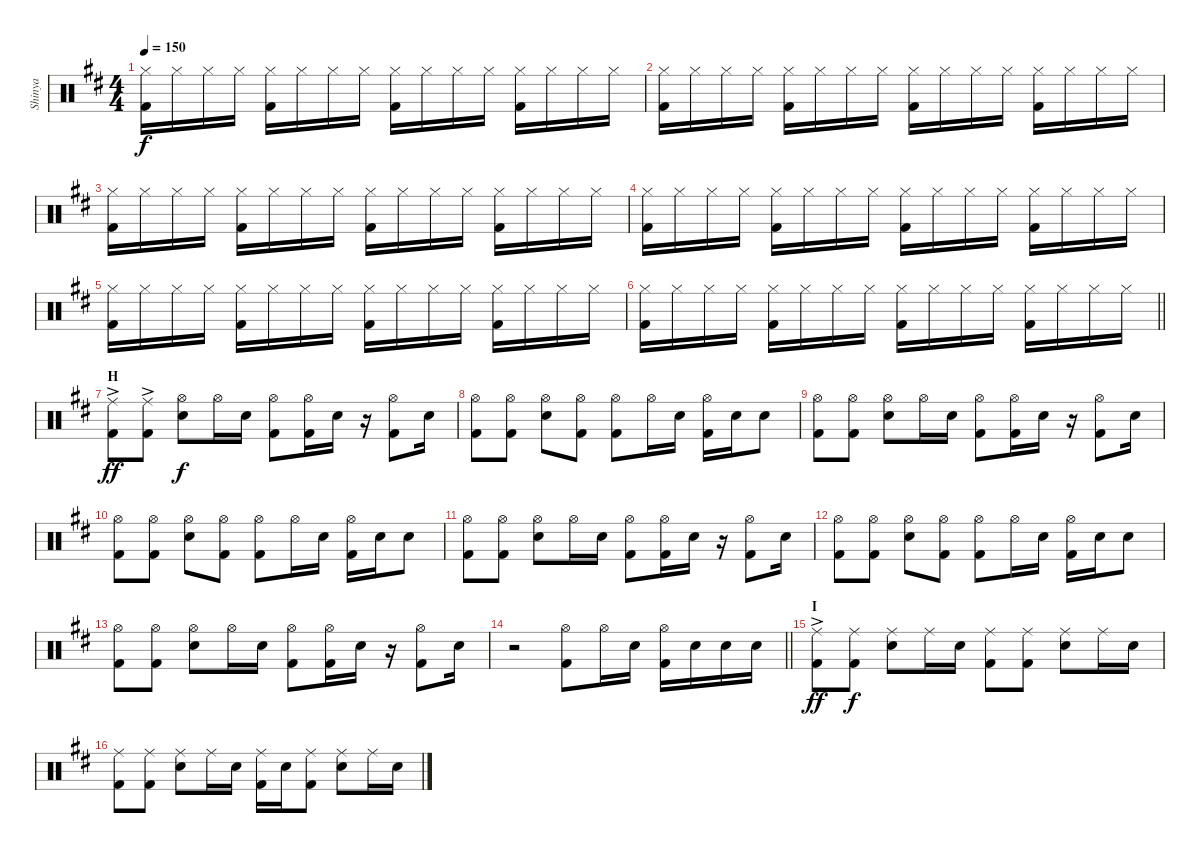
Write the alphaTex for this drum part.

\track ("Shinya" "Shinya") {instrument percussion}
\staff {score}
\articulation defaults
\ts (4 4)
\tempo 150
\clef neutral
\ks d
("Hi-Hat (closed)" "Kick (hit) 2").16{dy f} "Hi-Hat (closed)".16 "Hi-Hat (closed)".16 "Hi-Hat (closed)".16 ("Hi-Hat (closed)" "Kick (hit) 2").16 "Hi-Hat (closed)".16 "Hi-Hat (closed)".16 "Hi-Hat (closed)".16 ("Hi-Hat (closed)" "Kick (hit) 2").16 "Hi-Hat (closed)".16 "Hi-Hat (closed)".16 "Hi-Hat (closed)".16 ("Hi-Hat (closed)" "Kick (hit) 2").16 "Hi-Hat (closed)".16 "Hi-Hat (closed)".16 "Hi-Hat (closed)".16 |
("Hi-Hat (closed)" "Kick (hit) 2").16 "Hi-Hat (closed)".16 "Hi-Hat (closed)".16 "Hi-Hat (closed)".16 ("Hi-Hat (closed)" "Kick (hit) 2").16 "Hi-Hat (closed)".16 "Hi-Hat (closed)".16 "Hi-Hat (closed)".16 ("Hi-Hat (closed)" "Kick (hit) 2").16 "Hi-Hat (closed)".16 "Hi-Hat (closed)".16 "Hi-Hat (closed)".16 ("Hi-Hat (closed)" "Kick (hit) 2").16 "Hi-Hat (closed)".16 "Hi-Hat (closed)".16 "Hi-Hat (closed)".16 |
("Hi-Hat (closed)" "Kick (hit) 2").16 "Hi-Hat (closed)".16 "Hi-Hat (closed)".16 "Hi-Hat (closed)".16 ("Hi-Hat (closed)" "Kick (hit) 2").16 "Hi-Hat (closed)".16 "Hi-Hat (closed)".16 "Hi-Hat (closed)".16 ("Hi-Hat (closed)" "Kick (hit) 2").16 "Hi-Hat (closed)".16 "Hi-Hat (closed)".16 "Hi-Hat (closed)".16 ("Hi-Hat (closed)" "Kick (hit) 2").16 "Hi-Hat (closed)".16 "Hi-Hat (closed)".16 "Hi-Hat (closed)".16 |
("Hi-Hat (closed)" "Kick (hit) 2").16 "Hi-Hat (closed)".16 "Hi-Hat (closed)".16 "Hi-Hat (closed)".16 ("Hi-Hat (closed)" "Kick (hit) 2").16 "Hi-Hat (closed)".16 "Hi-Hat (closed)".16 "Hi-Hat (closed)".16 ("Hi-Hat (closed)" "Kick (hit) 2").16 "Hi-Hat (closed)".16 "Hi-Hat (closed)".16 "Hi-Hat (closed)".16 ("Hi-Hat (closed)" "Kick (hit) 2").16 "Hi-Hat (closed)".16 "Hi-Hat (closed)".16 "Hi-Hat (closed)".16 |
("Hi-Hat (closed)" "Kick (hit) 2").16 "Hi-Hat (closed)".16 "Hi-Hat (closed)".16 "Hi-Hat (closed)".16 ("Hi-Hat (closed)" "Kick (hit) 2").16 "Hi-Hat (closed)".16 "Hi-Hat (closed)".16 "Hi-Hat (closed)".16 ("Hi-Hat (closed)" "Kick (hit) 2").16 "Hi-Hat (closed)".16 "Hi-Hat (closed)".16 "Hi-Hat (closed)".16 ("Hi-Hat (closed)" "Kick (hit) 2").16 "Hi-Hat (closed)".16 "Hi-Hat (closed)".16 "Hi-Hat (closed)".16 |
\barLineRight lightlight
("Hi-Hat (closed)" "Kick (hit) 2").16 "Hi-Hat (closed)".16 "Hi-Hat (closed)".16 "Hi-Hat (closed)".16 ("Hi-Hat (closed)" "Kick (hit) 2").16 "Hi-Hat (closed)".16 "Hi-Hat (closed)".16 "Hi-Hat (closed)".16 ("Hi-Hat (closed)" "Kick (hit) 2").16 "Hi-Hat (closed)".16 "Hi-Hat (closed)".16 "Hi-Hat (closed)".16 ("Hi-Hat (closed)" "Kick (hit) 2").16 "Hi-Hat (closed)".16 "Hi-Hat (closed)".16 "Hi-Hat (closed)".16 |
\section ("" "H")
("Ride (middle)"{ac} "Kick (hit) 2").8{dy ff} ("Ride (middle)"{ac} "Kick (hit) 2").8 ("Hi-Hat (open)" "Snare (hit) 2").8{dy f} "Hi-Hat (open)".16 "Snare (hit) 2".16 ("Hi-Hat (open)" "Kick (hit) 2").8 ("Hi-Hat (open)" "Kick (hit) 2").16 "Snare (hit) 2".16 r.16 ("Hi-Hat (open)" "Kick (hit) 2").8 "Snare (hit) 2".16 |
("Hi-Hat (open)" "Kick (hit) 2").8 ("Hi-Hat (open)" "Kick (hit) 2").8 ("Hi-Hat (open)" "Snare (hit) 2").8 ("Hi-Hat (open)" "Kick (hit) 2").8 ("Hi-Hat (open)" "Kick (hit) 2").8 "Hi-Hat (open)".16 "Snare (hit) 2".16 ("Hi-Hat (open)" "Kick (hit) 2").16 "Snare (hit) 2".16 "Snare (hit) 2".8 |
("Hi-Hat (open)" "Kick (hit) 2").8 ("Hi-Hat (open)" "Kick (hit) 2").8 ("Hi-Hat (open)" "Snare (hit) 2").8 "Hi-Hat (open)".16 "Snare (hit) 2".16 ("Hi-Hat (open)" "Kick (hit) 2").8 ("Hi-Hat (open)" "Kick (hit) 2").16 "Snare (hit) 2".16 r.16 ("Hi-Hat (open)" "Kick (hit) 2").8 "Snare (hit) 2".16 |
("Hi-Hat (open)" "Kick (hit) 2").8 ("Hi-Hat (open)" "Kick (hit) 2").8 ("Hi-Hat (open)" "Snare (hit) 2").8 ("Hi-Hat (open)" "Kick (hit) 2").8 ("Hi-Hat (open)" "Kick (hit) 2").8 "Hi-Hat (open)".16 "Snare (hit) 2".16 ("Hi-Hat (open)" "Kick (hit) 2").16 "Snare (hit) 2".16 "Snare (hit) 2".8 |
("Hi-Hat (open)" "Kick (hit) 2").8 ("Hi-Hat (open)" "Kick (hit) 2").8 ("Hi-Hat (open)" "Snare (hit) 2").8 "Hi-Hat (open)".16 "Snare (hit) 2".16 ("Hi-Hat (open)" "Kick (hit) 2").8 ("Hi-Hat (open)" "Kick (hit) 2").16 "Snare (hit) 2".16 r.16 ("Hi-Hat (open)" "Kick (hit) 2").8 "Snare (hit) 2".16 |
("Hi-Hat (open)" "Kick (hit) 2").8 ("Hi-Hat (open)" "Kick (hit) 2").8 ("Hi-Hat (open)" "Snare (hit) 2").8 ("Hi-Hat (open)" "Kick (hit) 2").8 ("Hi-Hat (open)" "Kick (hit) 2").8 "Hi-Hat (open)".16 "Snare (hit) 2".16 ("Hi-Hat (open)" "Kick (hit) 2").16 "Snare (hit) 2".16 "Snare (hit) 2".8 |
("Hi-Hat (open)" "Kick (hit) 2").8 ("Hi-Hat (open)" "Kick (hit) 2").8 ("Hi-Hat (open)" "Snare (hit) 2").8 "Hi-Hat (open)".16 "Snare (hit) 2".16 ("Hi-Hat (open)" "Kick (hit) 2").8 ("Hi-Hat (open)" "Kick (hit) 2").16 "Snare (hit) 2".16 r.16 ("Hi-Hat (open)" "Kick (hit) 2").8 "Snare (hit) 2".16 |
\barLineRight lightlight
r.2 ("Hi-Hat (open)" "Kick (hit) 2").8 "Hi-Hat (open)".16 "Snare (hit) 2".16 ("Hi-Hat (open)" "Kick (hit) 2").16 "Snare (hit) 2".16 "Snare (hit) 2".16 "Snare (hit) 2".16 |
\section ("" "I")
("Ride (middle)"{ac} "Kick (hit) 2").8{dy ff} ("Ride (middle)" "Kick (hit) 2").8{dy f} ("Ride (middle)" "Snare (hit) 2").8 "Ride (middle)".16 "Snare (hit) 2".16 ("Ride (middle)" "Kick (hit) 2").8 ("Ride (middle)" "Kick (hit) 2").8 ("Ride (middle)" "Snare (hit) 2").8 "Ride (middle)".16 "Snare (hit) 2".16 |
("Ride (middle)" "Kick (hit) 2").8 ("Ride (middle)" "Kick (hit) 2").8 ("Ride (middle)" "Snare (hit) 2").8 "Ride (middle)".16 "Snare (hit) 2".16 ("Ride (middle)" "Kick (hit) 2").16 "Snare (hit) 2".16 ("Ride (middle)" "Kick (hit) 2").8 ("Ride (middle)" "Snare (hit) 2").8 "Ride (middle)".16 "Snare (hit) 2".16
